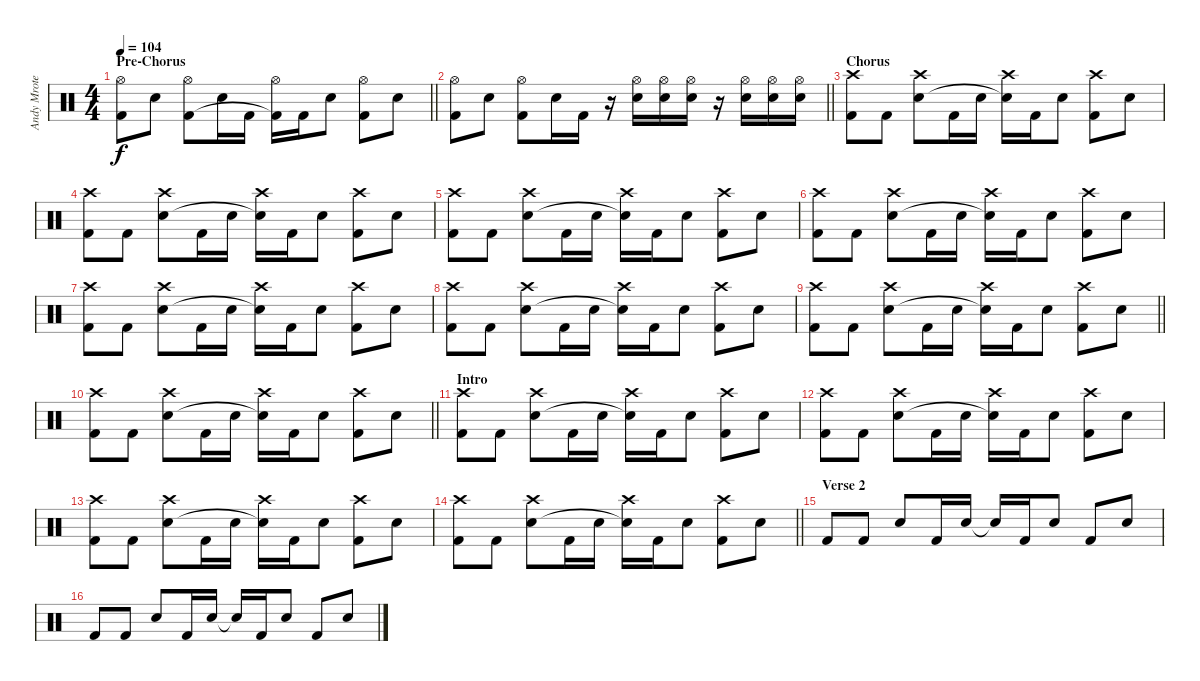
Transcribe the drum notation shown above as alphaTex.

\track ("Andy Mrotek (Percussion)" "Andy Mrote") {instrument percussion}
\staff {score}
\articulation defaults
\ts (4 4)
\section ("" "Pre-Chorus")
\tempo 104
\clef neutral
\barLineRight lightlight
\ks c
("Hi-Hat (open)" "Kick (hit) 2").8{dy f} "Snare (hit) 2".8 ("Hi-Hat (open)" "Kick (hit) 2").8 "Snare (hit) 2".16 "Kick (hit) 2".16 ("Hi-Hat (open)" "Kick (hit) 2"{t}).16 "Kick (hit) 2".16 "Snare (hit) 2".8 ("Hi-Hat (open)" "Kick (hit) 2").8 "Snare (hit) 2".8 |
\barLineRight lightlight
("Hi-Hat (open)" "Kick (hit) 2").8 "Snare (hit) 2".8 ("Hi-Hat (open)" "Kick (hit) 2").8 "Snare (hit) 2".16 "Kick (hit) 2".16 r.16 ("Hi-Hat (open)" "Snare (hit) 2").16 ("Hi-Hat (open)" "Snare (hit) 2").16 ("Hi-Hat (open)" "Snare (hit) 2").16 r.16 ("Hi-Hat (open)" "Snare (hit) 2").16 ("Hi-Hat (open)" "Snare (hit) 2").16 ("Hi-Hat (open)" "Snare (hit) 2").16 |
\section ("" "Chorus")
("Crash high (hit)" "Kick (hit) 2").8 "Kick (hit) 2".8 ("Crash high (hit)" "Snare (hit) 2").8 "Kick (hit) 2".16 "Snare (hit) 2".16 ("Crash high (hit)" "Snare (hit) 2"{t}).16 "Kick (hit) 2".16 "Snare (hit) 2".8 ("Crash high (hit)" "Kick (hit) 2").8 "Snare (hit) 2".8 |
("Crash high (hit)" "Kick (hit) 2").8 "Kick (hit) 2".8 ("Crash high (hit)" "Snare (hit) 2").8 "Kick (hit) 2".16 "Snare (hit) 2".16 ("Crash high (hit)" "Snare (hit) 2"{t}).16 "Kick (hit) 2".16 "Snare (hit) 2".8 ("Crash high (hit)" "Kick (hit) 2").8 "Snare (hit) 2".8 |
("Crash high (hit)" "Kick (hit) 2").8 "Kick (hit) 2".8 ("Crash high (hit)" "Snare (hit) 2").8 "Kick (hit) 2".16 "Snare (hit) 2".16 ("Crash high (hit)" "Snare (hit) 2"{t}).16 "Kick (hit) 2".16 "Snare (hit) 2".8 ("Crash high (hit)" "Kick (hit) 2").8 "Snare (hit) 2".8 |
("Crash high (hit)" "Kick (hit) 2").8 "Kick (hit) 2".8 ("Crash high (hit)" "Snare (hit) 2").8 "Kick (hit) 2".16 "Snare (hit) 2".16 ("Crash high (hit)" "Snare (hit) 2"{t}).16 "Kick (hit) 2".16 "Snare (hit) 2".8 ("Crash high (hit)" "Kick (hit) 2").8 "Snare (hit) 2".8 |
("Crash high (hit)" "Kick (hit) 2").8 "Kick (hit) 2".8 ("Crash high (hit)" "Snare (hit) 2").8 "Kick (hit) 2".16 "Snare (hit) 2".16 ("Crash high (hit)" "Snare (hit) 2"{t}).16 "Kick (hit) 2".16 "Snare (hit) 2".8 ("Crash high (hit)" "Kick (hit) 2").8 "Snare (hit) 2".8 |
("Crash high (hit)" "Kick (hit) 2").8 "Kick (hit) 2".8 ("Crash high (hit)" "Snare (hit) 2").8 "Kick (hit) 2".16 "Snare (hit) 2".16 ("Crash high (hit)" "Snare (hit) 2"{t}).16 "Kick (hit) 2".16 "Snare (hit) 2".8 ("Crash high (hit)" "Kick (hit) 2").8 "Snare (hit) 2".8 |
\barLineRight lightlight
("Crash high (hit)" "Kick (hit) 2").8 "Kick (hit) 2".8 ("Crash high (hit)" "Snare (hit) 2").8 "Kick (hit) 2".16 "Snare (hit) 2".16 ("Crash high (hit)" "Snare (hit) 2"{t}).16 "Kick (hit) 2".16 "Snare (hit) 2".8 ("Crash high (hit)" "Kick (hit) 2").8 "Snare (hit) 2".8 |
\barLineRight lightlight
("Crash high (hit)" "Kick (hit) 2").8 "Kick (hit) 2".8 ("Crash high (hit)" "Snare (hit) 2").8 "Kick (hit) 2".16 "Snare (hit) 2".16 ("Crash high (hit)" "Snare (hit) 2"{t}).16 "Kick (hit) 2".16 "Snare (hit) 2".8 ("Crash high (hit)" "Kick (hit) 2").8 "Snare (hit) 2".8 |
\section ("" "Intro")
("Crash high (hit)" "Kick (hit) 2").8 "Kick (hit) 2".8 ("Crash high (hit)" "Snare (hit) 2").8 "Kick (hit) 2".16 "Snare (hit) 2".16 ("Crash high (hit)" "Snare (hit) 2"{t}).16 "Kick (hit) 2".16 "Snare (hit) 2".8 ("Crash high (hit)" "Kick (hit) 2").8 "Snare (hit) 2".8 |
("Crash high (hit)" "Kick (hit) 2").8 "Kick (hit) 2".8 ("Crash high (hit)" "Snare (hit) 2").8 "Kick (hit) 2".16 "Snare (hit) 2".16 ("Crash high (hit)" "Snare (hit) 2"{t}).16 "Kick (hit) 2".16 "Snare (hit) 2".8 ("Crash high (hit)" "Kick (hit) 2").8 "Snare (hit) 2".8 |
("Crash high (hit)" "Kick (hit) 2").8 "Kick (hit) 2".8 ("Crash high (hit)" "Snare (hit) 2").8 "Kick (hit) 2".16 "Snare (hit) 2".16 ("Crash high (hit)" "Snare (hit) 2"{t}).16 "Kick (hit) 2".16 "Snare (hit) 2".8 ("Crash high (hit)" "Kick (hit) 2").8 "Snare (hit) 2".8 |
\barLineRight lightlight
("Crash high (hit)" "Kick (hit) 2").8 "Kick (hit) 2".8 ("Crash high (hit)" "Snare (hit) 2").8 "Kick (hit) 2".16 "Snare (hit) 2".16 ("Crash high (hit)" "Snare (hit) 2"{t}).16 "Kick (hit) 2".16 "Snare (hit) 2".8 ("Crash high (hit)" "Kick (hit) 2").8 "Snare (hit) 2".8 |
\section ("" "Verse 2")
"Kick (hit) 2".8 "Kick (hit) 2".8 "Snare (hit) 2".8 "Kick (hit) 2".16 "Snare (hit) 2".16 "Snare (hit) 2"{t}.16 "Kick (hit) 2".16 "Snare (hit) 2".8 "Kick (hit) 2".8 "Snare (hit) 2".8 |
"Kick (hit) 2".8 "Kick (hit) 2".8 "Snare (hit) 2".8 "Kick (hit) 2".16 "Snare (hit) 2".16 "Snare (hit) 2"{t}.16 "Kick (hit) 2".16 "Snare (hit) 2".8 "Kick (hit) 2".8 "Snare (hit) 2".8
